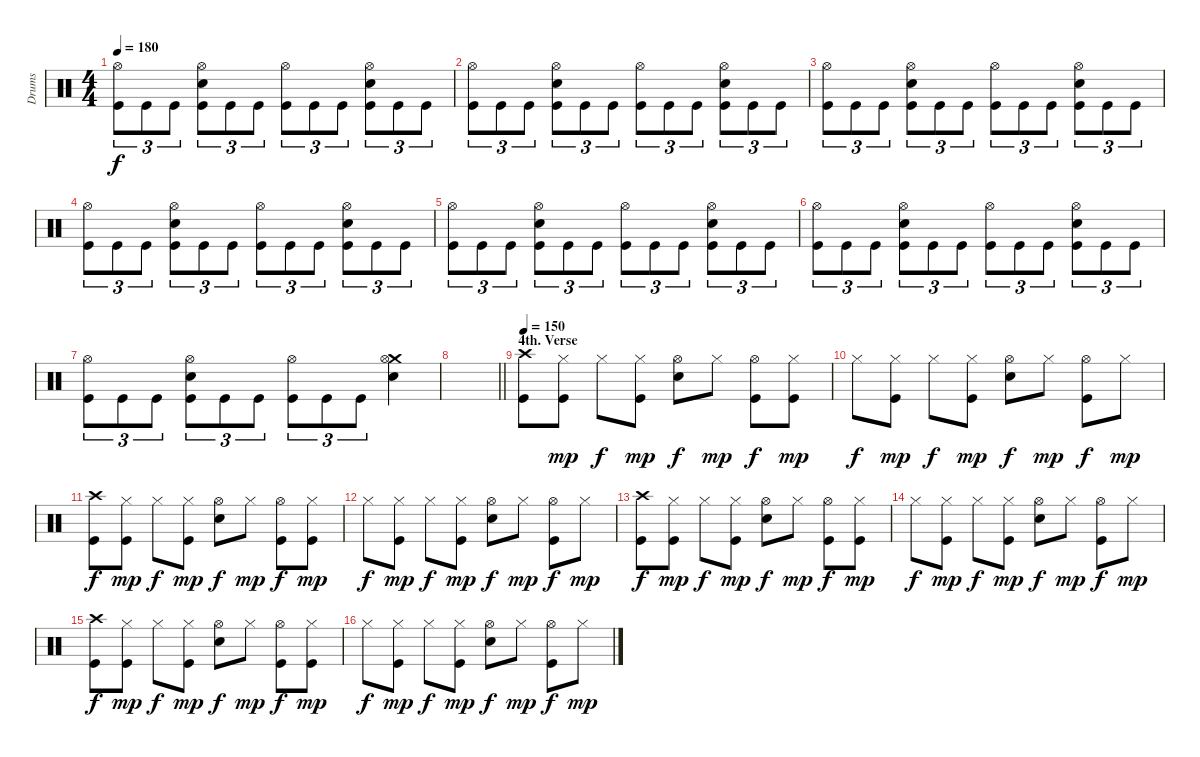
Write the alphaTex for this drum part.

\track ("Drums" "Drums") {instrument percussion}
\staff {score}
\articulation defaults
\ts (4 4)
\tempo 180
\clef neutral
\ks c
("Hi-Hat (open)" "Kick (hit)").8{tu (3 2) dy f} "Kick (hit)".8{tu (3 2)} "Kick (hit)".8{tu (3 2)} ("Hi-Hat (open)" "Electric Snare (hit)" "Kick (hit)").8{tu (3 2)} "Kick (hit)".8{tu (3 2)} "Kick (hit)".8{tu (3 2)} ("Hi-Hat (open)" "Kick (hit)").8{tu (3 2)} "Kick (hit)".8{tu (3 2)} "Kick (hit)".8{tu (3 2)} ("Hi-Hat (open)" "Electric Snare (hit)" "Kick (hit)").8{tu (3 2)} "Kick (hit)".8{tu (3 2)} "Kick (hit)".8{tu (3 2)} |
("Hi-Hat (open)" "Kick (hit)").8{tu (3 2)} "Kick (hit)".8{tu (3 2)} "Kick (hit)".8{tu (3 2)} ("Hi-Hat (open)" "Electric Snare (hit)" "Kick (hit)").8{tu (3 2)} "Kick (hit)".8{tu (3 2)} "Kick (hit)".8{tu (3 2)} ("Hi-Hat (open)" "Kick (hit)").8{tu (3 2)} "Kick (hit)".8{tu (3 2)} "Kick (hit)".8{tu (3 2)} ("Hi-Hat (open)" "Electric Snare (hit)" "Kick (hit)").8{tu (3 2)} "Kick (hit)".8{tu (3 2)} "Kick (hit)".8{tu (3 2)} |
("Hi-Hat (open)" "Kick (hit)").8{tu (3 2)} "Kick (hit)".8{tu (3 2)} "Kick (hit)".8{tu (3 2)} ("Hi-Hat (open)" "Electric Snare (hit)" "Kick (hit)").8{tu (3 2)} "Kick (hit)".8{tu (3 2)} "Kick (hit)".8{tu (3 2)} ("Hi-Hat (open)" "Kick (hit)").8{tu (3 2)} "Kick (hit)".8{tu (3 2)} "Kick (hit)".8{tu (3 2)} ("Hi-Hat (open)" "Electric Snare (hit)" "Kick (hit)").8{tu (3 2)} "Kick (hit)".8{tu (3 2)} "Kick (hit)".8{tu (3 2)} |
("Hi-Hat (open)" "Kick (hit)").8{tu (3 2)} "Kick (hit)".8{tu (3 2)} "Kick (hit)".8{tu (3 2)} ("Hi-Hat (open)" "Electric Snare (hit)" "Kick (hit)").8{tu (3 2)} "Kick (hit)".8{tu (3 2)} "Kick (hit)".8{tu (3 2)} ("Hi-Hat (open)" "Kick (hit)").8{tu (3 2)} "Kick (hit)".8{tu (3 2)} "Kick (hit)".8{tu (3 2)} ("Hi-Hat (open)" "Electric Snare (hit)" "Kick (hit)").8{tu (3 2)} "Kick (hit)".8{tu (3 2)} "Kick (hit)".8{tu (3 2)} |
("Hi-Hat (open)" "Kick (hit)").8{tu (3 2)} "Kick (hit)".8{tu (3 2)} "Kick (hit)".8{tu (3 2)} ("Hi-Hat (open)" "Electric Snare (hit)" "Kick (hit)").8{tu (3 2)} "Kick (hit)".8{tu (3 2)} "Kick (hit)".8{tu (3 2)} ("Hi-Hat (open)" "Kick (hit)").8{tu (3 2)} "Kick (hit)".8{tu (3 2)} "Kick (hit)".8{tu (3 2)} ("Hi-Hat (open)" "Electric Snare (hit)" "Kick (hit)").8{tu (3 2)} "Kick (hit)".8{tu (3 2)} "Kick (hit)".8{tu (3 2)} |
("Hi-Hat (open)" "Kick (hit)").8{tu (3 2)} "Kick (hit)".8{tu (3 2)} "Kick (hit)".8{tu (3 2)} ("Hi-Hat (open)" "Electric Snare (hit)" "Kick (hit)").8{tu (3 2)} "Kick (hit)".8{tu (3 2)} "Kick (hit)".8{tu (3 2)} ("Hi-Hat (open)" "Kick (hit)").8{tu (3 2)} "Kick (hit)".8{tu (3 2)} "Kick (hit)".8{tu (3 2)} ("Hi-Hat (open)" "Electric Snare (hit)" "Kick (hit)").8{tu (3 2)} "Kick (hit)".8{tu (3 2)} "Kick (hit)".8{tu (3 2)} |
("Hi-Hat (open)" "Kick (hit)").8{tu (3 2)} "Kick (hit)".8{tu (3 2)} "Kick (hit)".8{tu (3 2)} ("Hi-Hat (open)" "Electric Snare (hit)" "Kick (hit)").8{tu (3 2)} "Kick (hit)".8{tu (3 2)} "Kick (hit)".8{tu (3 2)} ("Hi-Hat (open)" "Kick (hit)").8{tu (3 2)} "Kick (hit)".8{tu (3 2)} "Kick (hit)".8{tu (3 2)} ("Crash medium (hit)" "Hi-Hat (open)" "Electric Snare (hit)").4 |
\barLineRight lightlight
|
\section ("" "4th. Verse")
\tempo 150
("Crash high (hit)" "Kick (hit)").8 ("Hi-Hat (closed)" "Kick (hit)").8{dy mp} "Hi-Hat (closed)".8{dy f} ("Hi-Hat (closed)" "Kick (hit)").8{dy mp} ("Hi-Hat (open)" "Electric Snare (hit)").8{dy f} "Hi-Hat (closed)".8{dy mp} ("Hi-Hat (open)" "Kick (hit)").8{dy f} ("Hi-Hat (closed)" "Kick (hit)").8{dy mp} |
"Hi-Hat (closed)".8{dy f} ("Hi-Hat (closed)" "Kick (hit)").8{dy mp} "Hi-Hat (closed)".8{dy f} ("Hi-Hat (closed)" "Kick (hit)").8{dy mp} ("Hi-Hat (open)" "Electric Snare (hit)").8{dy f} "Hi-Hat (closed)".8{dy mp} ("Hi-Hat (open)" "Kick (hit)").8{dy f} "Hi-Hat (closed)".8{dy mp} |
("Crash high (hit)" "Kick (hit)").8{dy f} ("Hi-Hat (closed)" "Kick (hit)").8{dy mp} "Hi-Hat (closed)".8{dy f} ("Hi-Hat (closed)" "Kick (hit)").8{dy mp} ("Hi-Hat (open)" "Electric Snare (hit)").8{dy f} "Hi-Hat (closed)".8{dy mp} ("Hi-Hat (open)" "Kick (hit)").8{dy f} ("Hi-Hat (closed)" "Kick (hit)").8{dy mp} |
"Hi-Hat (closed)".8{dy f} ("Hi-Hat (closed)" "Kick (hit)").8{dy mp} "Hi-Hat (closed)".8{dy f} ("Hi-Hat (closed)" "Kick (hit)").8{dy mp} ("Hi-Hat (open)" "Electric Snare (hit)").8{dy f} "Hi-Hat (closed)".8{dy mp} ("Hi-Hat (open)" "Kick (hit)").8{dy f} "Hi-Hat (closed)".8{dy mp} |
("Crash high (hit)" "Kick (hit)").8{dy f} ("Hi-Hat (closed)" "Kick (hit)").8{dy mp} "Hi-Hat (closed)".8{dy f} ("Hi-Hat (closed)" "Kick (hit)").8{dy mp} ("Hi-Hat (open)" "Electric Snare (hit)").8{dy f} "Hi-Hat (closed)".8{dy mp} ("Hi-Hat (open)" "Kick (hit)").8{dy f} ("Hi-Hat (closed)" "Kick (hit)").8{dy mp} |
"Hi-Hat (closed)".8{dy f} ("Hi-Hat (closed)" "Kick (hit)").8{dy mp} "Hi-Hat (closed)".8{dy f} ("Hi-Hat (closed)" "Kick (hit)").8{dy mp} ("Hi-Hat (open)" "Electric Snare (hit)").8{dy f} "Hi-Hat (closed)".8{dy mp} ("Hi-Hat (open)" "Kick (hit)").8{dy f} "Hi-Hat (closed)".8{dy mp} |
("Crash high (hit)" "Kick (hit)").8{dy f} ("Hi-Hat (closed)" "Kick (hit)").8{dy mp} "Hi-Hat (closed)".8{dy f} ("Hi-Hat (closed)" "Kick (hit)").8{dy mp} ("Hi-Hat (open)" "Electric Snare (hit)").8{dy f} "Hi-Hat (closed)".8{dy mp} ("Hi-Hat (open)" "Kick (hit)").8{dy f} ("Hi-Hat (closed)" "Kick (hit)").8{dy mp} |
"Hi-Hat (closed)".8{dy f} ("Hi-Hat (closed)" "Kick (hit)").8{dy mp} "Hi-Hat (closed)".8{dy f} ("Hi-Hat (closed)" "Kick (hit)").8{dy mp} ("Hi-Hat (open)" "Electric Snare (hit)").8{dy f} "Hi-Hat (closed)".8{dy mp} ("Hi-Hat (open)" "Kick (hit)").8{dy f} "Hi-Hat (closed)".8{dy mp}
